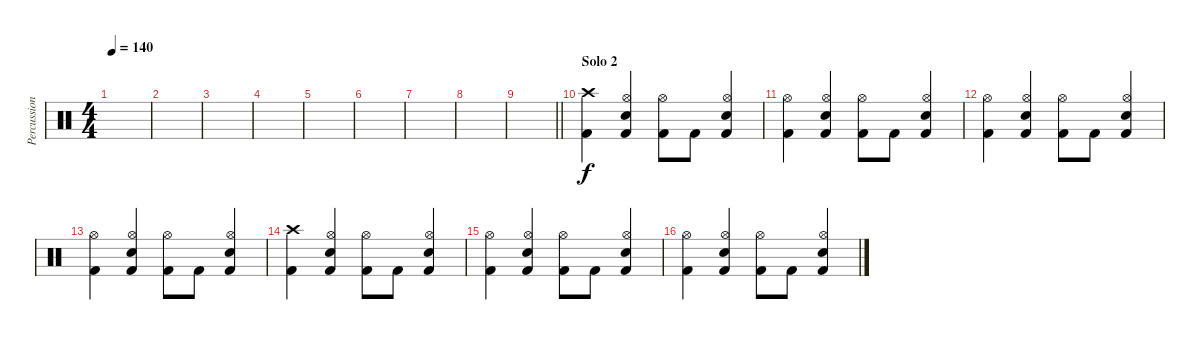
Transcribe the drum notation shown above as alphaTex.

\track ("Percussions" "Percussion") {instrument percussion}
\staff {score}
\articulation defaults
\ts (4 4)
\tempo 140
\clef neutral
\ks c
|
|
|
|
|
|
|
|
\barLineRight lightlight
|
\section ("" "Solo 2")
("Crash high (hit)" "Kick (hit) 2").4 ("Hi-Hat (open)" "Electric Snare (hit)" "Kick (hit) 2").4 ("Hi-Hat (open)" "Kick (hit) 2").8 "Kick (hit) 2".8 ("Hi-Hat (open)" "Electric Snare (hit)" "Kick (hit) 2").4 |
("Hi-Hat (open)" "Kick (hit) 2").4 ("Hi-Hat (open)" "Electric Snare (hit)" "Kick (hit) 2").4 ("Hi-Hat (open)" "Kick (hit) 2").8 "Kick (hit) 2".8 ("Hi-Hat (open)" "Electric Snare (hit)" "Kick (hit) 2").4 |
("Hi-Hat (open)" "Kick (hit) 2").4 ("Hi-Hat (open)" "Electric Snare (hit)" "Kick (hit) 2").4 ("Hi-Hat (open)" "Kick (hit) 2").8 "Kick (hit) 2".8 ("Hi-Hat (open)" "Electric Snare (hit)" "Kick (hit) 2").4 |
("Hi-Hat (open)" "Kick (hit) 2").4 ("Hi-Hat (open)" "Electric Snare (hit)" "Kick (hit) 2").4 ("Hi-Hat (open)" "Kick (hit) 2").8 "Kick (hit) 2".8 ("Hi-Hat (open)" "Electric Snare (hit)" "Kick (hit) 2").4 |
("Crash high (hit)" "Kick (hit) 2").4 ("Hi-Hat (open)" "Electric Snare (hit)" "Kick (hit) 2").4 ("Hi-Hat (open)" "Kick (hit) 2").8 "Kick (hit) 2".8 ("Hi-Hat (open)" "Electric Snare (hit)" "Kick (hit) 2").4 |
("Hi-Hat (open)" "Kick (hit) 2").4 ("Hi-Hat (open)" "Electric Snare (hit)" "Kick (hit) 2").4 ("Hi-Hat (open)" "Kick (hit) 2").8 "Kick (hit) 2".8 ("Hi-Hat (open)" "Electric Snare (hit)" "Kick (hit) 2").4 |
("Hi-Hat (open)" "Kick (hit) 2").4 ("Hi-Hat (open)" "Electric Snare (hit)" "Kick (hit) 2").4 ("Hi-Hat (open)" "Kick (hit) 2").8 "Kick (hit) 2".8 ("Hi-Hat (open)" "Electric Snare (hit)" "Kick (hit) 2").4
